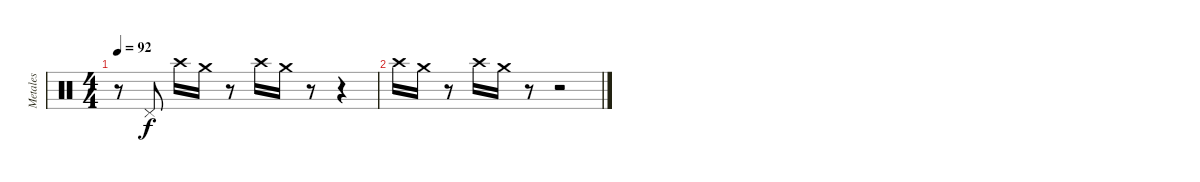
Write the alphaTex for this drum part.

\track ("Metales" "Metales") {instrument percussion}
\staff {score}
\articulation defaults
\ts (4 4)
\tempo 92
\clef neutral
\ks c
r.8{dy f} "Pedal Hi-Hat (hit)".8 "Crash high (hit)".16 "Crash medium (hit)".16 r.8 "Crash high (hit)".16 "Crash medium (hit)".16 r.8 r.4 |
"Crash high (hit)".16 "Crash medium (hit)".16 r.8 "Crash high (hit)".16 "Crash medium (hit)".16 r.8 r.2
